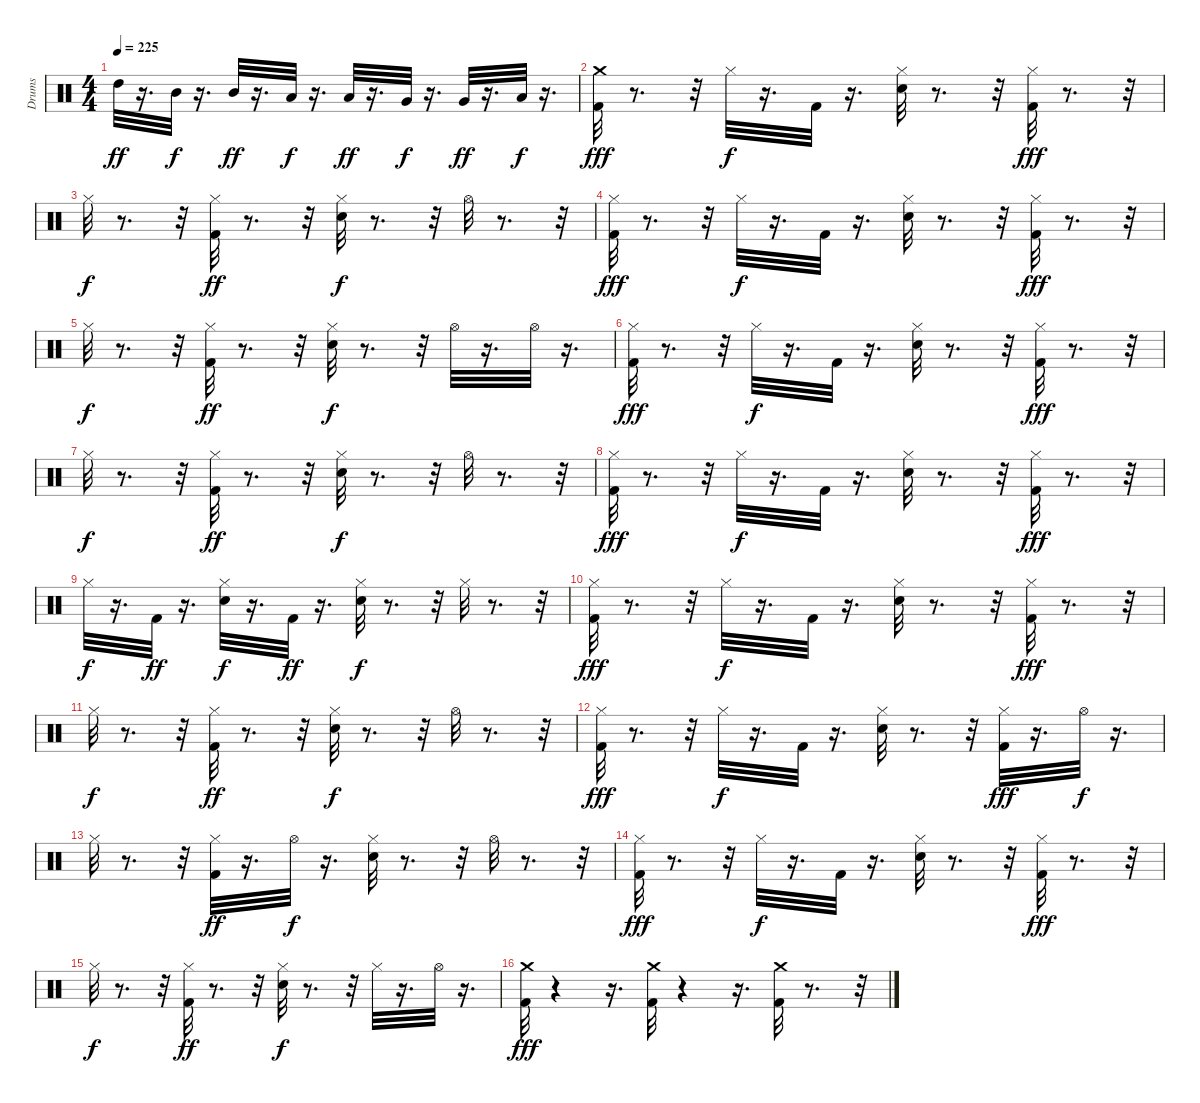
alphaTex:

\track ("Drums" "Drums") {instrument percussion}
\staff {score}
\articulation defaults
\ts (4 4)
\tempo 225
\clef neutral
\ks c "High Tom (hit)".32{dy ff}
r.16{d} "Mid Tom (hit)".32{dy f} r.16{d} "Mid Tom (hit)".32{dy ff} r.16{d} "Low Tom (hit)".32{dy f} r.16{d} "Low Tom (hit)".32{dy ff} r.16{d} "Very Low Tom (hit)".32{dy f} r.16{d} "Very Low Tom (hit)".32{dy ff} r.16{d} "Low Floor Tom (hit)".32{dy f} r.16{d} |
("Crash medium (hit)" "Kick (hit) 2").32{dy fff} r.8{d} r.32 "Hi-Hat (closed)".32{dy f} r.16{d} "Kick (hit) 2".32 r.16{d} ("Hi-Hat (closed)" "Snare (hit) 2").32 r.8{d} r.32 ("Hi-Hat (closed)" "Kick (hit) 2").32{dy fff} r.8{d} r.32 |
"Hi-Hat (closed)".32{dy f} r.8{d} r.32 ("Hi-Hat (closed)" "Kick (hit) 2").32{dy ff} r.8{d} r.32 ("Hi-Hat (closed)" "Snare (hit) 2").32{dy f} r.8{d} r.32 "Hi-Hat (open)".32 r.8{d} r.32 |
("Hi-Hat (closed)" "Kick (hit) 2").32{dy fff} r.8{d} r.32 "Hi-Hat (closed)".32{dy f} r.16{d} "Kick (hit) 2".32 r.16{d} ("Hi-Hat (closed)" "Snare (hit) 2").32 r.8{d} r.32 ("Hi-Hat (closed)" "Kick (hit) 2").32{dy fff} r.8{d} r.32 |
"Hi-Hat (closed)".32{dy f} r.8{d} r.32 ("Hi-Hat (closed)" "Kick (hit) 2").32{dy ff} r.8{d} r.32 ("Hi-Hat (closed)" "Snare (hit) 2").32{dy f} r.8{d} r.32 "Hi-Hat (open)".32 r.16{d} "Hi-Hat (open)".32 r.16{d} |
("Hi-Hat (closed)" "Kick (hit) 2").32{dy fff} r.8{d} r.32 "Hi-Hat (closed)".32{dy f} r.16{d} "Kick (hit) 2".32 r.16{d} ("Hi-Hat (closed)" "Snare (hit) 2").32 r.8{d} r.32 ("Hi-Hat (closed)" "Kick (hit) 2").32{dy fff} r.8{d} r.32 |
"Hi-Hat (closed)".32{dy f} r.8{d} r.32 ("Hi-Hat (closed)" "Kick (hit) 2").32{dy ff} r.8{d} r.32 ("Hi-Hat (closed)" "Snare (hit) 2").32{dy f} r.8{d} r.32 "Hi-Hat (open)".32 r.8{d} r.32 |
("Hi-Hat (closed)" "Kick (hit) 2").32{dy fff} r.8{d} r.32 "Hi-Hat (closed)".32{dy f} r.16{d} "Kick (hit) 2".32 r.16{d} ("Hi-Hat (closed)" "Snare (hit) 2").32 r.8{d} r.32 ("Hi-Hat (closed)" "Kick (hit) 2").32{dy fff} r.8{d} r.32 |
"Hi-Hat (closed)".32{dy f} r.16{d} "Kick (hit) 2".32{dy ff} r.16{d} ("Snare (hit) 2" "Hi-Hat (closed)").32{dy f} r.16{d} "Kick (hit) 2".32{dy ff} r.16{d} ("Hi-Hat (closed)" "Snare (hit) 2").32{dy f} r.8{d} r.32 "Hi-Hat (closed)".32 r.8{d} r.32 |
("Hi-Hat (closed)" "Kick (hit) 2").32{dy fff} r.8{d} r.32 "Hi-Hat (closed)".32{dy f} r.16{d} "Kick (hit) 2".32 r.16{d} ("Hi-Hat (closed)" "Snare (hit) 2").32 r.8{d} r.32 ("Hi-Hat (closed)" "Kick (hit) 2").32{dy fff} r.8{d} r.32 |
"Hi-Hat (closed)".32{dy f} r.8{d} r.32 ("Hi-Hat (closed)" "Kick (hit) 2").32{dy ff} r.8{d} r.32 ("Hi-Hat (closed)" "Snare (hit) 2").32{dy f} r.8{d} r.32 "Hi-Hat (open)".32 r.8{d} r.32 |
("Hi-Hat (closed)" "Kick (hit) 2").32{dy fff} r.8{d} r.32 "Hi-Hat (closed)".32{dy f} r.16{d} "Kick (hit) 2".32 r.16{d} ("Hi-Hat (closed)" "Snare (hit) 2").32 r.8{d} r.32 ("Hi-Hat (closed)" "Kick (hit) 2").32{dy fff} r.16{d} "Hi-Hat (open)".32{dy f} r.16{d} |
"Hi-Hat (closed)".32 r.8{d} r.32 ("Hi-Hat (closed)" "Kick (hit) 2").32{dy ff} r.16{d} "Hi-Hat (open)".32{dy f} r.16{d} ("Hi-Hat (closed)" "Snare (hit) 2").32 r.8{d} r.32 "Hi-Hat (open)".32 r.8{d} r.32 |
("Hi-Hat (closed)" "Kick (hit) 2").32{dy fff} r.8{d} r.32 "Hi-Hat (closed)".32{dy f} r.16{d} "Kick (hit) 2".32 r.16{d} ("Hi-Hat (closed)" "Snare (hit) 2").32 r.8{d} r.32 ("Hi-Hat (closed)" "Kick (hit) 2").32{dy fff} r.8{d} r.32 |
"Hi-Hat (closed)".32{dy f} r.8{d} r.32 ("Hi-Hat (closed)" "Kick (hit) 2").32{dy ff} r.8{d} r.32 ("Hi-Hat (closed)" "Snare (hit) 2").32{dy f} r.8{d} r.32 "Hi-Hat (closed)".32 r.16{d} "Hi-Hat (open)".32 r.16{d} |
("Crash medium (hit)" "Kick (hit) 2").32{dy fff} r.4 r.16{d} ("Crash medium (hit)" "Kick (hit) 2").32 r.4 r.16{d} ("Crash medium (hit)" "Kick (hit) 2").32 r.8{d} r.32
